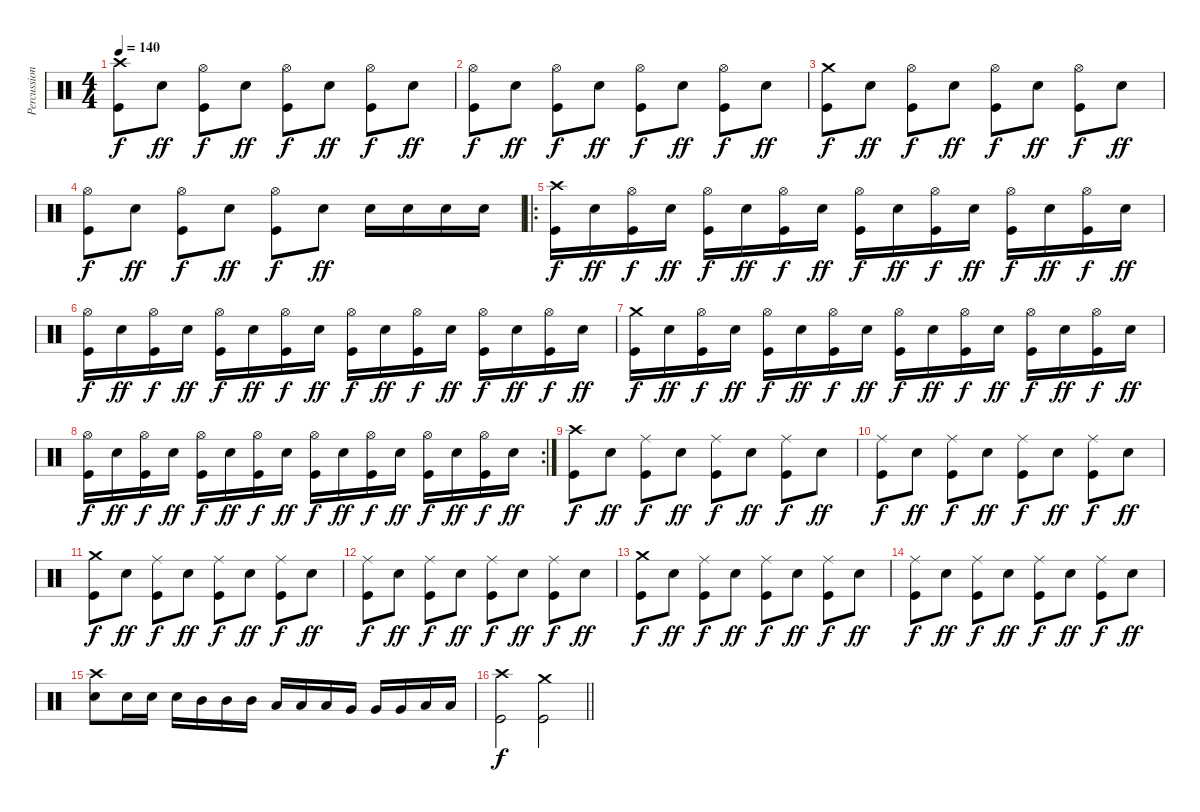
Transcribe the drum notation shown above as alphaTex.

\track ("Percussions" "Percussion") {instrument percussion}
\staff {score}
\articulation defaults
\ts (4 4)
\tempo 140
\clef neutral
\ks c
("Crash high (hit)" "Kick (hit)").8{dy f} "Snare (hit) 2".8{dy ff} ("Hi-Hat (open)" "Kick (hit)").8{dy f} "Snare (hit) 2".8{dy ff} ("Hi-Hat (open)" "Kick (hit)").8{dy f} "Snare (hit) 2".8{dy ff} ("Hi-Hat (open)" "Kick (hit)").8{dy f} "Snare (hit) 2".8{dy ff} |
("Hi-Hat (open)" "Kick (hit)").8{dy f} "Snare (hit) 2".8{dy ff} ("Hi-Hat (open)" "Kick (hit)").8{dy f} "Snare (hit) 2".8{dy ff} ("Hi-Hat (open)" "Kick (hit)").8{dy f} "Snare (hit) 2".8{dy ff} ("Hi-Hat (open)" "Kick (hit)").8{dy f} "Snare (hit) 2".8{dy ff} |
("Crash medium (hit)" "Kick (hit)").8{dy f} "Snare (hit) 2".8{dy ff} ("Hi-Hat (open)" "Kick (hit)").8{dy f} "Snare (hit) 2".8{dy ff} ("Hi-Hat (open)" "Kick (hit)").8{dy f} "Snare (hit) 2".8{dy ff} ("Hi-Hat (open)" "Kick (hit)").8{dy f} "Snare (hit) 2".8{dy ff} |
("Hi-Hat (open)" "Kick (hit)").8{dy f} "Snare (hit) 2".8{dy ff} ("Hi-Hat (open)" "Kick (hit)").8{dy f} "Snare (hit) 2".8{dy ff} ("Hi-Hat (open)" "Kick (hit)").8{dy f} "Snare (hit) 2".8{dy ff} "Snare (hit) 2".16 "Snare (hit) 2".16 "Snare (hit) 2".16 "Snare (hit) 2".16 |
\ro
("Crash high (hit)" "Kick (hit)").16{dy f} "Snare (hit) 2".16{dy ff} ("Hi-Hat (open)" "Kick (hit)").16{dy f} "Snare (hit) 2".16{dy ff} ("Hi-Hat (open)" "Kick (hit)").16{dy f} "Snare (hit) 2".16{dy ff} ("Hi-Hat (open)" "Kick (hit)").16{dy f} "Snare (hit) 2".16{dy ff} ("Hi-Hat (open)" "Kick (hit)").16{dy f} "Snare (hit) 2".16{dy ff} ("Hi-Hat (open)" "Kick (hit)").16{dy f} "Snare (hit) 2".16{dy ff} ("Hi-Hat (open)" "Kick (hit)").16{dy f} "Snare (hit) 2".16{dy ff} ("Hi-Hat (open)" "Kick (hit)").16{dy f} "Snare (hit) 2".16{dy ff} |
("Hi-Hat (open)" "Kick (hit)").16{dy f} "Snare (hit) 2".16{dy ff} ("Hi-Hat (open)" "Kick (hit)").16{dy f} "Snare (hit) 2".16{dy ff} ("Hi-Hat (open)" "Kick (hit)").16{dy f} "Snare (hit) 2".16{dy ff} ("Hi-Hat (open)" "Kick (hit)").16{dy f} "Snare (hit) 2".16{dy ff} ("Hi-Hat (open)" "Kick (hit)").16{dy f} "Snare (hit) 2".16{dy ff} ("Hi-Hat (open)" "Kick (hit)").16{dy f} "Snare (hit) 2".16{dy ff} ("Hi-Hat (open)" "Kick (hit)").16{dy f} "Snare (hit) 2".16{dy ff} ("Hi-Hat (open)" "Kick (hit)").16{dy f} "Snare (hit) 2".16{dy ff} |
("Crash medium (hit)" "Kick (hit)").16{dy f} "Snare (hit) 2".16{dy ff} ("Hi-Hat (open)" "Kick (hit)").16{dy f} "Snare (hit) 2".16{dy ff} ("Hi-Hat (open)" "Kick (hit)").16{dy f} "Snare (hit) 2".16{dy ff} ("Hi-Hat (open)" "Kick (hit)").16{dy f} "Snare (hit) 2".16{dy ff} ("Hi-Hat (open)" "Kick (hit)").16{dy f} "Snare (hit) 2".16{dy ff} ("Hi-Hat (open)" "Kick (hit)").16{dy f} "Snare (hit) 2".16{dy ff} ("Hi-Hat (open)" "Kick (hit)").16{dy f} "Snare (hit) 2".16{dy ff} ("Hi-Hat (open)" "Kick (hit)").16{dy f} "Snare (hit) 2".16{dy ff} |
\rc 2
("Hi-Hat (open)" "Kick (hit)").16{dy f} "Snare (hit) 2".16{dy ff} ("Hi-Hat (open)" "Kick (hit)").16{dy f} "Snare (hit) 2".16{dy ff} ("Hi-Hat (open)" "Kick (hit)").16{dy f} "Snare (hit) 2".16{dy ff} ("Hi-Hat (open)" "Kick (hit)").16{dy f} "Snare (hit) 2".16{dy ff} ("Hi-Hat (open)" "Kick (hit)").16{dy f} "Snare (hit) 2".16{dy ff} ("Hi-Hat (open)" "Kick (hit)").16{dy f} "Snare (hit) 2".16{dy ff} ("Hi-Hat (open)" "Kick (hit)").16{dy f} "Snare (hit) 2".16{dy ff} ("Hi-Hat (open)" "Kick (hit)").16{dy f} "Snare (hit) 2".16{dy ff} |
("Crash high (hit)" "Kick (hit)").8{dy f} "Snare (hit) 2".8{dy ff} ("Ride (middle)" "Kick (hit)").8{dy f} "Snare (hit) 2".8{dy ff} ("Ride (middle)" "Kick (hit)").8{dy f} "Snare (hit) 2".8{dy ff} ("Ride (middle)" "Kick (hit)").8{dy f} "Snare (hit) 2".8{dy ff} |
("Ride (middle)" "Kick (hit)").8{dy f} "Snare (hit) 2".8{dy ff} ("Ride (middle)" "Kick (hit)").8{dy f} "Snare (hit) 2".8{dy ff} ("Ride (middle)" "Kick (hit)").8{dy f} "Snare (hit) 2".8{dy ff} ("Ride (middle)" "Kick (hit)").8{dy f} "Snare (hit) 2".8{dy ff} |
("Crash medium (hit)" "Kick (hit)").8{dy f} "Snare (hit) 2".8{dy ff} ("Ride (middle)" "Kick (hit)").8{dy f} "Snare (hit) 2".8{dy ff} ("Ride (middle)" "Kick (hit)").8{dy f} "Snare (hit) 2".8{dy ff} ("Ride (middle)" "Kick (hit)").8{dy f} "Snare (hit) 2".8{dy ff} |
("Ride (middle)" "Kick (hit)").8{dy f} "Snare (hit) 2".8{dy ff} ("Ride (middle)" "Kick (hit)").8{dy f} "Snare (hit) 2".8{dy ff} ("Ride (middle)" "Kick (hit)").8{dy f} "Snare (hit) 2".8{dy ff} ("Ride (middle)" "Kick (hit)").8{dy f} "Snare (hit) 2".8{dy ff} |
("Crash medium (hit)" "Kick (hit)").8{dy f} "Snare (hit) 2".8{dy ff} ("Ride (middle)" "Kick (hit)").8{dy f} "Snare (hit) 2".8{dy ff} ("Ride (middle)" "Kick (hit)").8{dy f} "Snare (hit) 2".8{dy ff} ("Ride (middle)" "Kick (hit)").8{dy f} "Snare (hit) 2".8{dy ff} |
("Ride (middle)" "Kick (hit)").8{dy f} "Snare (hit) 2".8{dy ff} ("Ride (middle)" "Kick (hit)").8{dy f} "Snare (hit) 2".8{dy ff} ("Ride (middle)" "Kick (hit)").8{dy f} "Snare (hit) 2".8{dy ff} ("Ride (middle)" "Kick (hit)").8{dy f} "Snare (hit) 2".8{dy ff} |
("Crash high (hit)" "Snare (hit) 2").8 "Snare (hit) 2".16 "Snare (hit) 2".16 "Snare (hit) 2".16 "Mid Tom (hit)".16 "Mid Tom (hit)".16 "Mid Tom (hit)".16 "Low Tom (hit)".16 "Low Tom (hit)".16 "Low Tom (hit)".16 "Very Low Tom (hit)".16 "Very Low Tom (hit)".16 "Very Low Tom (hit)".16 "Low Floor Tom (hit)".16 "Low Floor Tom (hit)".16 |
\barLineRight lightlight
("Crash high (hit)" "Kick (hit)").2{dy f} ("Crash medium (hit)" "Kick (hit)").2
